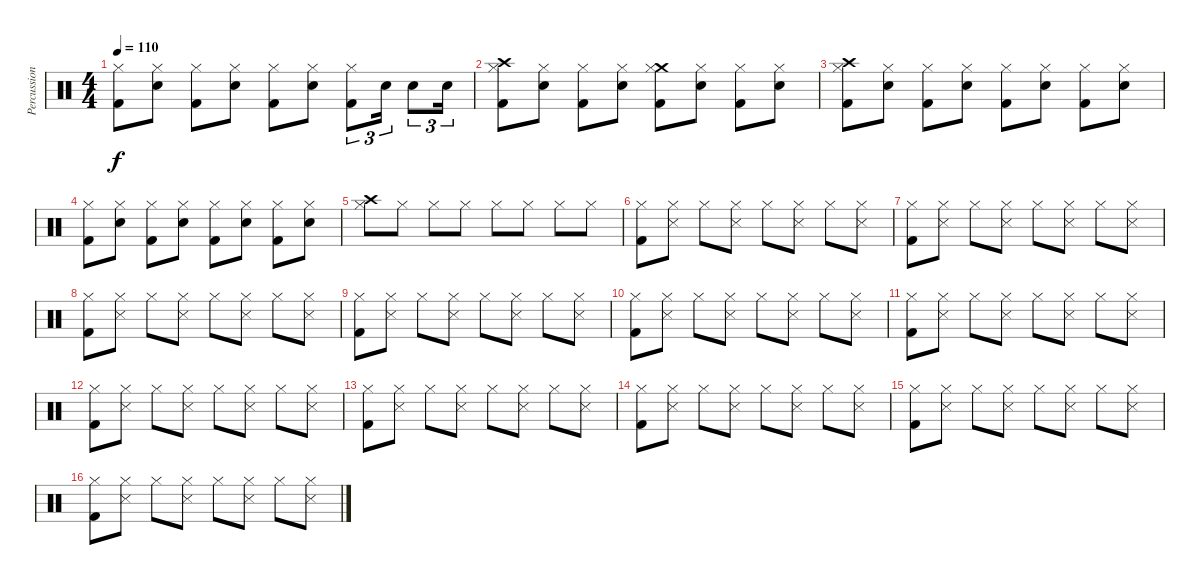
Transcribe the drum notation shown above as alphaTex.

\track ("Percussions" "Percussion") {instrument percussion}
\staff {score}
\articulation defaults
\ts (4 4)
\tempo 110
\clef neutral
\ks c
("Hi-Hat (closed)" "Kick (hit) 2").8{dy f} ("Hi-Hat (closed)" "Electric Snare (hit)").8 ("Hi-Hat (closed)" "Kick (hit) 2").8 ("Hi-Hat (closed)" "Electric Snare (hit)").8 ("Hi-Hat (closed)" "Kick (hit) 2").8 ("Hi-Hat (closed)" "Electric Snare (hit)").8 ("Hi-Hat (closed)" "Kick (hit) 2").8{tu (3 2)} "Electric Snare (hit)".16{tu (3 2)} "Electric Snare (hit)".8{tu (3 2)} "Electric Snare (hit)".16{tu (3 2)} |
("Crash high (hit)" "Hi-Hat (closed)" "Kick (hit) 2").8 ("Hi-Hat (closed)" "Electric Snare (hit)").8 ("Hi-Hat (closed)" "Kick (hit) 2").8 ("Hi-Hat (closed)" "Electric Snare (hit)").8 ("Crash medium (hit)" "Hi-Hat (closed)" "Kick (hit) 2").8 ("Hi-Hat (closed)" "Electric Snare (hit)").8 ("Hi-Hat (closed)" "Kick (hit) 2").8 ("Hi-Hat (closed)" "Electric Snare (hit)").8 |
("Crash high (hit)" "Hi-Hat (closed)" "Kick (hit) 2").8 ("Hi-Hat (closed)" "Electric Snare (hit)").8 ("Hi-Hat (closed)" "Kick (hit) 2").8 ("Hi-Hat (closed)" "Electric Snare (hit)").8 ("Hi-Hat (closed)" "Kick (hit) 2").8 ("Hi-Hat (closed)" "Electric Snare (hit)").8 ("Hi-Hat (closed)" "Kick (hit) 2").8 ("Hi-Hat (closed)" "Electric Snare (hit)").8 |
("Hi-Hat (closed)" "Kick (hit) 2").8 ("Hi-Hat (closed)" "Electric Snare (hit)").8 ("Hi-Hat (closed)" "Kick (hit) 2").8 ("Hi-Hat (closed)" "Electric Snare (hit)").8 ("Hi-Hat (closed)" "Kick (hit) 2").8 ("Hi-Hat (closed)" "Electric Snare (hit)").8 ("Hi-Hat (closed)" "Kick (hit) 2").8 ("Hi-Hat (closed)" "Electric Snare (hit)").8 |
("Crash high (hit)" "Hi-Hat (closed)").8 "Hi-Hat (closed)".8 "Hi-Hat (closed)".8 "Hi-Hat (closed)".8 "Hi-Hat (closed)".8 "Hi-Hat (closed)".8 "Hi-Hat (closed)".8 "Hi-Hat (closed)".8 |
("Hi-Hat (closed)" "Kick (hit) 2").8 ("Hi-Hat (closed)" "Snare (side stick) 3").8 "Hi-Hat (closed)".8 ("Hi-Hat (closed)" "Snare (side stick) 3").8 "Hi-Hat (closed)".8 ("Hi-Hat (closed)" "Snare (side stick) 3").8 "Hi-Hat (closed)".8 ("Hi-Hat (closed)" "Snare (side stick) 3").8 |
("Hi-Hat (closed)" "Kick (hit) 2").8 ("Hi-Hat (closed)" "Snare (side stick) 3").8 "Hi-Hat (closed)".8 ("Hi-Hat (closed)" "Snare (side stick) 3").8 "Hi-Hat (closed)".8 ("Hi-Hat (closed)" "Snare (side stick) 3").8 "Hi-Hat (closed)".8 ("Hi-Hat (closed)" "Snare (side stick) 3").8 |
("Hi-Hat (closed)" "Kick (hit) 2").8 ("Hi-Hat (closed)" "Snare (side stick) 3").8 "Hi-Hat (closed)".8 ("Hi-Hat (closed)" "Snare (side stick) 3").8 "Hi-Hat (closed)".8 ("Hi-Hat (closed)" "Snare (side stick) 3").8 "Hi-Hat (closed)".8 ("Hi-Hat (closed)" "Snare (side stick) 3").8 |
("Hi-Hat (closed)" "Kick (hit) 2").8 ("Hi-Hat (closed)" "Snare (side stick) 3").8 "Hi-Hat (closed)".8 ("Hi-Hat (closed)" "Snare (side stick) 3").8 "Hi-Hat (closed)".8 ("Hi-Hat (closed)" "Snare (side stick) 3").8 "Hi-Hat (closed)".8 ("Hi-Hat (closed)" "Snare (side stick) 3").8 |
("Hi-Hat (closed)" "Kick (hit) 2").8 ("Hi-Hat (closed)" "Snare (side stick) 3").8 "Hi-Hat (closed)".8 ("Hi-Hat (closed)" "Snare (side stick) 3").8 "Hi-Hat (closed)".8 ("Hi-Hat (closed)" "Snare (side stick) 3").8 "Hi-Hat (closed)".8 ("Hi-Hat (closed)" "Snare (side stick) 3").8 |
("Hi-Hat (closed)" "Kick (hit) 2").8 ("Hi-Hat (closed)" "Snare (side stick) 3").8 "Hi-Hat (closed)".8 ("Hi-Hat (closed)" "Snare (side stick) 3").8 "Hi-Hat (closed)".8 ("Hi-Hat (closed)" "Snare (side stick) 3").8 "Hi-Hat (closed)".8 ("Hi-Hat (closed)" "Snare (side stick) 3").8 |
("Hi-Hat (closed)" "Kick (hit) 2").8 ("Hi-Hat (closed)" "Snare (side stick) 3").8 "Hi-Hat (closed)".8 ("Hi-Hat (closed)" "Snare (side stick) 3").8 "Hi-Hat (closed)".8 ("Hi-Hat (closed)" "Snare (side stick) 3").8 "Hi-Hat (closed)".8 ("Hi-Hat (closed)" "Snare (side stick) 3").8 |
("Hi-Hat (closed)" "Kick (hit) 2").8 ("Hi-Hat (closed)" "Snare (side stick) 3").8 "Hi-Hat (closed)".8 ("Hi-Hat (closed)" "Snare (side stick) 3").8 "Hi-Hat (closed)".8 ("Hi-Hat (closed)" "Snare (side stick) 3").8 "Hi-Hat (closed)".8 ("Hi-Hat (closed)" "Snare (side stick) 3").8 |
("Hi-Hat (closed)" "Kick (hit) 2").8 ("Hi-Hat (closed)" "Snare (side stick) 3").8 "Hi-Hat (closed)".8 ("Hi-Hat (closed)" "Snare (side stick) 3").8 "Hi-Hat (closed)".8 ("Hi-Hat (closed)" "Snare (side stick) 3").8 "Hi-Hat (closed)".8 ("Hi-Hat (closed)" "Snare (side stick) 3").8 |
("Hi-Hat (closed)" "Kick (hit) 2").8 ("Hi-Hat (closed)" "Snare (side stick) 3").8 "Hi-Hat (closed)".8 ("Hi-Hat (closed)" "Snare (side stick) 3").8 "Hi-Hat (closed)".8 ("Hi-Hat (closed)" "Snare (side stick) 3").8 "Hi-Hat (closed)".8 ("Hi-Hat (closed)" "Snare (side stick) 3").8 |
("Hi-Hat (closed)" "Kick (hit) 2").8 ("Hi-Hat (closed)" "Snare (side stick) 3").8 "Hi-Hat (closed)".8 ("Hi-Hat (closed)" "Snare (side stick) 3").8 "Hi-Hat (closed)".8 ("Hi-Hat (closed)" "Snare (side stick) 3").8 "Hi-Hat (closed)".8 ("Hi-Hat (closed)" "Snare (side stick) 3").8
